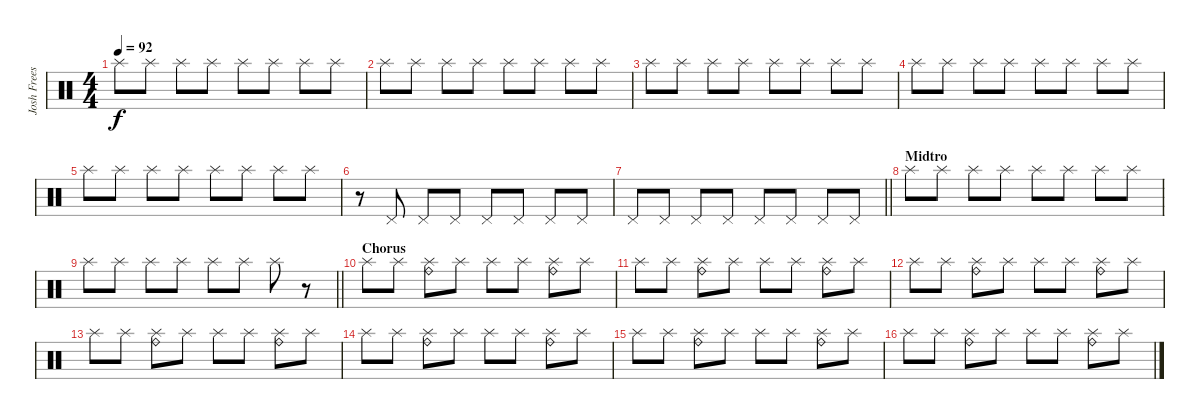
\track ("Josh Freese (Studio Drummer)" "Josh Frees") {instrument percussion}
\staff {score}
\articulation defaults
\ts (4 4)
\tempo 92
\clef neutral
\ks c "Splash (hit)".8{dy f} "Splash (hit)".8 "Splash (hit)".8 "Splash (hit)".8 "Splash (hit)".8 "Splash (hit)".8 "Splash (hit)".8 "Splash (hit)".8
|
"Splash (hit)".8 "Splash (hit)".8 "Splash (hit)".8 "Splash (hit)".8 "Splash (hit)".8 "Splash (hit)".8 "Splash (hit)".8 "Splash (hit)".8 |
"Splash (hit)".8 "Splash (hit)".8 "Splash (hit)".8 "Splash (hit)".8 "Splash (hit)".8 "Splash (hit)".8 "Splash (hit)".8 "Splash (hit)".8 |
"Splash (hit)".8 "Splash (hit)".8 "Splash (hit)".8 "Splash (hit)".8 "Splash (hit)".8 "Splash (hit)".8 "Splash (hit)".8 "Splash (hit)".8 |
"Splash (hit)".8 "Splash (hit)".8 "Splash (hit)".8 "Splash (hit)".8 "Splash (hit)".8 "Splash (hit)".8 "Splash (hit)".8 "Splash (hit)".8 |
r.8 "Pedal Hi-Hat (hit)".8 "Pedal Hi-Hat (hit)".8 "Pedal Hi-Hat (hit)".8 "Pedal Hi-Hat (hit)".8 "Pedal Hi-Hat (hit)".8 "Pedal Hi-Hat (hit)".8 "Pedal Hi-Hat (hit)".8 |
\barLineRight lightlight "Pedal Hi-Hat (hit)".8 "Pedal Hi-Hat (hit)".8 "Pedal Hi-Hat (hit)".8 "Pedal Hi-Hat (hit)".8 "Pedal Hi-Hat (hit)".8 "Pedal Hi-Hat (hit)".8 "Pedal Hi-Hat (hit)".8 "Pedal Hi-Hat (hit)".8
|
\section ("" "Midtro")
"Splash (hit)".8 "Splash (hit)".8 "Splash (hit)".8 "Splash (hit)".8 "Splash (hit)".8 "Splash (hit)".8 "Splash (hit)".8 "Splash (hit)".8 |
\barLineRight lightlight "Splash (hit)".8 "Splash (hit)".8 "Splash (hit)".8 "Splash (hit)".8 "Splash (hit)".8 "Splash (hit)".8 "Splash (hit)".8
r.8 |
\section ("" "Chorus")
"Splash (hit)".8 "Splash (hit)".8 ("Splash (hit)" "Ride (bell)").8 "Splash (hit)".8 "Splash (hit)".8 "Splash (hit)".8 ("Splash (hit)" "Ride (bell)").8 "Splash (hit)".8 |
"Splash (hit)".8 "Splash (hit)".8 ("Splash (hit)" "Ride (bell)").8 "Splash (hit)".8 "Splash (hit)".8 "Splash (hit)".8 ("Splash (hit)" "Ride (bell)").8 "Splash (hit)".8 |
"Splash (hit)".8 "Splash (hit)".8 ("Splash (hit)" "Ride (bell)").8 "Splash (hit)".8 "Splash (hit)".8 "Splash (hit)".8 ("Splash (hit)" "Ride (bell)").8 "Splash (hit)".8 |
"Splash (hit)".8 "Splash (hit)".8 ("Splash (hit)" "Ride (bell)").8 "Splash (hit)".8 "Splash (hit)".8 "Splash (hit)".8 ("Splash (hit)" "Ride (bell)").8 "Splash (hit)".8 |
"Splash (hit)".8 "Splash (hit)".8 ("Splash (hit)" "Ride (bell)").8 "Splash (hit)".8 "Splash (hit)".8 "Splash (hit)".8 ("Splash (hit)" "Ride (bell)").8 "Splash (hit)".8 |
"Splash (hit)".8 "Splash (hit)".8 ("Splash (hit)" "Ride (bell)").8 "Splash (hit)".8 "Splash (hit)".8 "Splash (hit)".8 ("Splash (hit)" "Ride (bell)").8 "Splash (hit)".8 |
"Splash (hit)".8 "Splash (hit)".8 ("Splash (hit)" "Ride (bell)").8 "Splash (hit)".8 "Splash (hit)".8 "Splash (hit)".8 ("Splash (hit)" "Ride (bell)").8 "Splash (hit)".8
